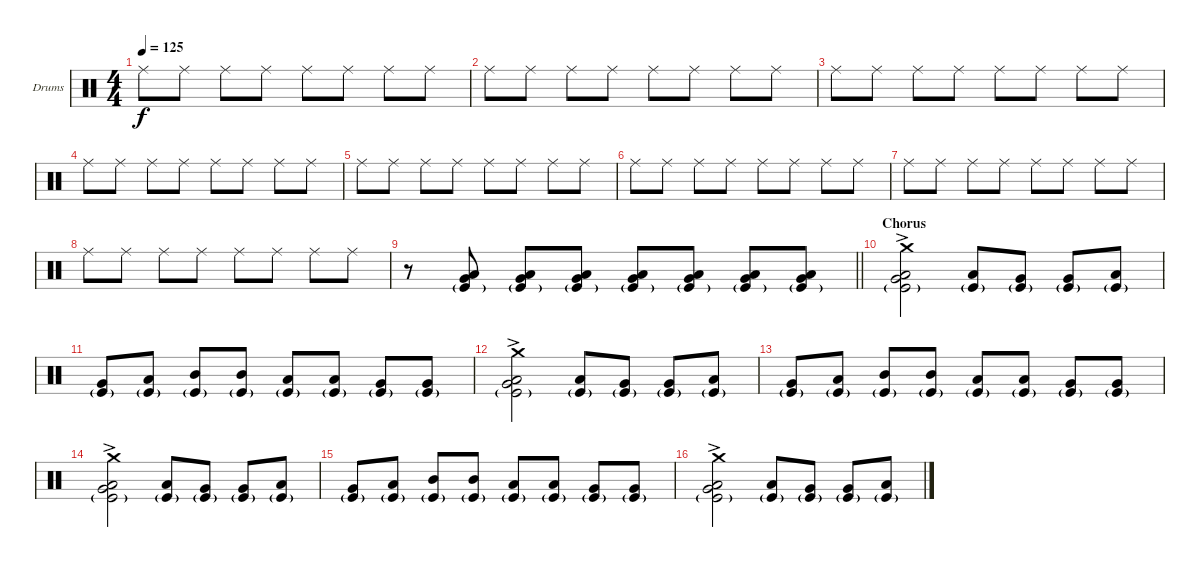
\bracketExtendMode groupsimilarinstruments
\firstSystemTrackNameOrientation horizontal
\otherSystemsTrackNameOrientation horizontal
\track ("Drumkit" "Drums") {instrument percussion}
\staff {score}
\articulation defaults
\ts (4 4)
\tempo 125
\clef neutral
\ks c "Ride (middle)".8{dy f} "Ride (middle)".8 "Ride (middle)".8 "Ride (middle)".8 "Ride (middle)".8 "Ride (middle)".8 "Ride (middle)".8 "Ride (middle)".8
|
"Ride (middle)".8 "Ride (middle)".8 "Ride (middle)".8 "Ride (middle)".8 "Ride (middle)".8 "Ride (middle)".8 "Ride (middle)".8 "Ride (middle)".8 |
"Ride (middle)".8 "Ride (middle)".8 "Ride (middle)".8 "Ride (middle)".8 "Ride (middle)".8 "Ride (middle)".8 "Ride (middle)".8 "Ride (middle)".8 |
"Ride (middle)".8 "Ride (middle)".8 "Ride (middle)".8 "Ride (middle)".8 "Ride (middle)".8 "Ride (middle)".8 "Ride (middle)".8 "Ride (middle)".8 |
"Ride (middle)".8 "Ride (middle)".8 "Ride (middle)".8 "Ride (middle)".8 "Ride (middle)".8 "Ride (middle)".8 "Ride (middle)".8 "Ride (middle)".8 |
"Ride (middle)".8 "Ride (middle)".8 "Ride (middle)".8 "Ride (middle)".8 "Ride (middle)".8 "Ride (middle)".8 "Ride (middle)".8 "Ride (middle)".8 |
"Ride (middle)".8 "Ride (middle)".8 "Ride (middle)".8 "Ride (middle)".8 "Ride (middle)".8 "Ride (middle)".8 "Ride (middle)".8 "Ride (middle)".8 |
"Ride (middle)".8 "Ride (middle)".8 "Ride (middle)".8 "Ride (middle)".8 "Ride (middle)".8 "Ride (middle)".8 "Ride (middle)".8 "Ride (middle)".8 |
\barLineRight lightlight
r.8 ("Low Tom (hit)" "Very Low Tom (hit)" "Kick (hit)"{g}).8 ("Low Tom (hit)" "Very Low Tom (hit)" "Kick (hit)"{g}).8 ("Low Tom (hit)" "Very Low Tom (hit)" "Kick (hit)"{g}).8 ("Low Tom (hit)" "Very Low Tom (hit)" "Kick (hit)"{g}).8 ("Low Tom (hit)" "Very Low Tom (hit)" "Kick (hit)"{g}).8 ("Low Tom (hit)" "Very Low Tom (hit)" "Kick (hit)"{g}).8 ("Low Tom (hit)" "Very Low Tom (hit)" "Kick (hit)"{g}).8 |
\section ("" "Chorus")
("Crash medium (hit)"{ac} "Low Tom (hit)" "Very Low Tom (hit)" "Kick (hit)"{g}).2 ("Low Tom (hit)" "Kick (hit)"{g}).8 ("Very Low Tom (hit)" "Kick (hit)"{g}).8 ("Very Low Tom (hit)" "Kick (hit)"{g}).8 ("Low Tom (hit)" "Kick (hit)"{g}).8 |
("Kick (hit)"{g} "Very Low Tom (hit)").8 ("Low Tom (hit)" "Kick (hit)"{g}).8 ("Mid Tom (hit)" "Kick (hit)"{g}).8 ("Mid Tom (hit)" "Kick (hit)"{g}).8 ("Low Tom (hit)" "Kick (hit)"{g}).8 ("Low Tom (hit)" "Kick (hit)"{g}).8 ("Very Low Tom (hit)" "Kick (hit)"{g}).8 ("Very Low Tom (hit)" "Kick (hit)"{g}).8 |
("Crash medium (hit)"{ac} "Low Tom (hit)" "Very Low Tom (hit)" "Kick (hit)"{g}).2 ("Low Tom (hit)" "Kick (hit)"{g}).8 ("Very Low Tom (hit)" "Kick (hit)"{g}).8 ("Very Low Tom (hit)" "Kick (hit)"{g}).8 ("Low Tom (hit)" "Kick (hit)"{g}).8 |
("Kick (hit)"{g} "Very Low Tom (hit)").8 ("Low Tom (hit)" "Kick (hit)"{g}).8 ("Mid Tom (hit)" "Kick (hit)"{g}).8 ("Mid Tom (hit)" "Kick (hit)"{g}).8 ("Low Tom (hit)" "Kick (hit)"{g}).8 ("Low Tom (hit)" "Kick (hit)"{g}).8 ("Very Low Tom (hit)" "Kick (hit)"{g}).8 ("Very Low Tom (hit)" "Kick (hit)"{g}).8 |
("Crash medium (hit)"{ac} "Low Tom (hit)" "Very Low Tom (hit)" "Kick (hit)"{g}).2 ("Low Tom (hit)" "Kick (hit)"{g}).8 ("Very Low Tom (hit)" "Kick (hit)"{g}).8 ("Very Low Tom (hit)" "Kick (hit)"{g}).8 ("Low Tom (hit)" "Kick (hit)"{g}).8 |
("Kick (hit)"{g} "Very Low Tom (hit)").8 ("Low Tom (hit)" "Kick (hit)"{g}).8 ("Mid Tom (hit)" "Kick (hit)"{g}).8 ("Mid Tom (hit)" "Kick (hit)"{g}).8 ("Low Tom (hit)" "Kick (hit)"{g}).8 ("Low Tom (hit)" "Kick (hit)"{g}).8 ("Very Low Tom (hit)" "Kick (hit)"{g}).8 ("Very Low Tom (hit)" "Kick (hit)"{g}).8 |
("Crash medium (hit)"{ac} "Low Tom (hit)" "Very Low Tom (hit)" "Kick (hit)"{g}).2 ("Low Tom (hit)" "Kick (hit)"{g}).8 ("Very Low Tom (hit)" "Kick (hit)"{g}).8 ("Very Low Tom (hit)" "Kick (hit)"{g}).8 ("Low Tom (hit)" "Kick (hit)"{g}).8
